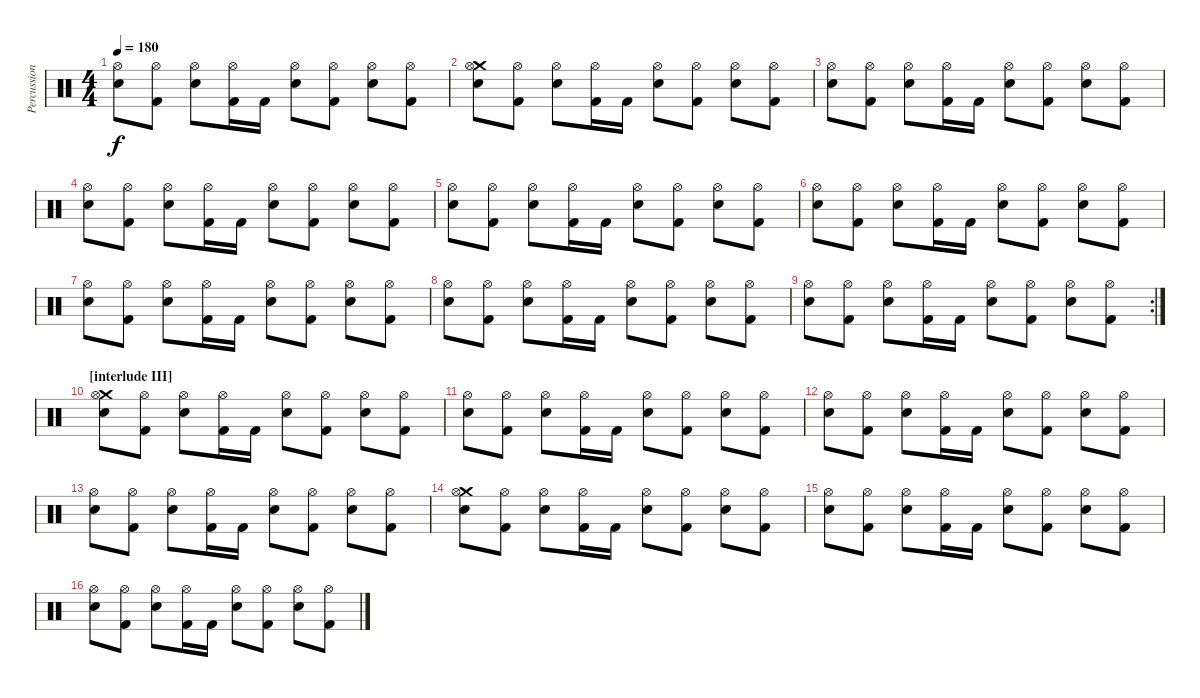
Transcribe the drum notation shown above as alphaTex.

\track ("Percussion" "Percussion") {instrument percussion}
\staff {score}
\articulation defaults
\ts (4 4)
\tempo 180
\clef neutral
\ks c
("Hi-Hat (open)" "Electric Snare (hit)").8{dy f} ("Hi-Hat (open)" "Kick (hit) 2").8 ("Hi-Hat (open)" "Electric Snare (hit)").8 ("Hi-Hat (open)" "Kick (hit) 2").16 "Kick (hit) 2".16 ("Hi-Hat (open)" "Electric Snare (hit)").8 ("Hi-Hat (open)" "Kick (hit) 2").8 ("Hi-Hat (open)" "Electric Snare (hit)").8 ("Hi-Hat (open)" "Kick (hit) 2").8 |
("Crash medium (hit)" "Hi-Hat (open)" "Electric Snare (hit)").8 ("Hi-Hat (open)" "Kick (hit) 2").8 ("Hi-Hat (open)" "Electric Snare (hit)").8 ("Hi-Hat (open)" "Kick (hit) 2").16 "Kick (hit) 2".16 ("Hi-Hat (open)" "Electric Snare (hit)").8 ("Hi-Hat (open)" "Kick (hit) 2").8 ("Hi-Hat (open)" "Electric Snare (hit)").8 ("Hi-Hat (open)" "Kick (hit) 2").8 |
("Hi-Hat (open)" "Electric Snare (hit)").8 ("Hi-Hat (open)" "Kick (hit) 2").8 ("Hi-Hat (open)" "Electric Snare (hit)").8 ("Hi-Hat (open)" "Kick (hit) 2").16 "Kick (hit) 2".16 ("Hi-Hat (open)" "Electric Snare (hit)").8 ("Hi-Hat (open)" "Kick (hit) 2").8 ("Hi-Hat (open)" "Electric Snare (hit)").8 ("Hi-Hat (open)" "Kick (hit) 2").8 |
("Hi-Hat (open)" "Electric Snare (hit)").8 ("Hi-Hat (open)" "Kick (hit) 2").8 ("Hi-Hat (open)" "Electric Snare (hit)").8 ("Hi-Hat (open)" "Kick (hit) 2").16 "Kick (hit) 2".16 ("Hi-Hat (open)" "Electric Snare (hit)").8 ("Hi-Hat (open)" "Kick (hit) 2").8 ("Hi-Hat (open)" "Electric Snare (hit)").8 ("Hi-Hat (open)" "Kick (hit) 2").8 |
("Hi-Hat (open)" "Electric Snare (hit)").8 ("Hi-Hat (open)" "Kick (hit) 2").8 ("Hi-Hat (open)" "Electric Snare (hit)").8 ("Hi-Hat (open)" "Kick (hit) 2").16 "Kick (hit) 2".16 ("Hi-Hat (open)" "Electric Snare (hit)").8 ("Hi-Hat (open)" "Kick (hit) 2").8 ("Hi-Hat (open)" "Electric Snare (hit)").8 ("Hi-Hat (open)" "Kick (hit) 2").8 |
("Hi-Hat (open)" "Electric Snare (hit)").8 ("Hi-Hat (open)" "Kick (hit) 2").8 ("Hi-Hat (open)" "Electric Snare (hit)").8 ("Hi-Hat (open)" "Kick (hit) 2").16 "Kick (hit) 2".16 ("Hi-Hat (open)" "Electric Snare (hit)").8 ("Hi-Hat (open)" "Kick (hit) 2").8 ("Hi-Hat (open)" "Electric Snare (hit)").8 ("Hi-Hat (open)" "Kick (hit) 2").8 |
("Hi-Hat (open)" "Electric Snare (hit)").8 ("Hi-Hat (open)" "Kick (hit) 2").8 ("Hi-Hat (open)" "Electric Snare (hit)").8 ("Hi-Hat (open)" "Kick (hit) 2").16 "Kick (hit) 2".16 ("Hi-Hat (open)" "Electric Snare (hit)").8 ("Hi-Hat (open)" "Kick (hit) 2").8 ("Hi-Hat (open)" "Electric Snare (hit)").8 ("Hi-Hat (open)" "Kick (hit) 2").8 |
("Hi-Hat (open)" "Electric Snare (hit)").8 ("Hi-Hat (open)" "Kick (hit) 2").8 ("Hi-Hat (open)" "Electric Snare (hit)").8 ("Hi-Hat (open)" "Kick (hit) 2").16 "Kick (hit) 2".16 ("Hi-Hat (open)" "Electric Snare (hit)").8 ("Hi-Hat (open)" "Kick (hit) 2").8 ("Hi-Hat (open)" "Electric Snare (hit)").8 ("Hi-Hat (open)" "Kick (hit) 2").8 |
\rc 2
("Hi-Hat (open)" "Electric Snare (hit)").8 ("Hi-Hat (open)" "Kick (hit) 2").8 ("Hi-Hat (open)" "Electric Snare (hit)").8 ("Hi-Hat (open)" "Kick (hit) 2").16 "Kick (hit) 2".16 ("Hi-Hat (open)" "Electric Snare (hit)").8 ("Hi-Hat (open)" "Kick (hit) 2").8 ("Hi-Hat (open)" "Electric Snare (hit)").8 ("Hi-Hat (open)" "Kick (hit) 2").8 |
\section ("" "[interlude III]")
("Crash medium (hit)" "Hi-Hat (open)" "Electric Snare (hit)").8 ("Hi-Hat (open)" "Kick (hit) 2").8 ("Hi-Hat (open)" "Electric Snare (hit)").8 ("Hi-Hat (open)" "Kick (hit) 2").16 "Kick (hit) 2".16 ("Hi-Hat (open)" "Electric Snare (hit)").8 ("Hi-Hat (open)" "Kick (hit) 2").8 ("Hi-Hat (open)" "Electric Snare (hit)").8 ("Hi-Hat (open)" "Kick (hit) 2").8 |
("Hi-Hat (open)" "Electric Snare (hit)").8 ("Hi-Hat (open)" "Kick (hit) 2").8 ("Hi-Hat (open)" "Electric Snare (hit)").8 ("Hi-Hat (open)" "Kick (hit) 2").16 "Kick (hit) 2".16 ("Hi-Hat (open)" "Electric Snare (hit)").8 ("Hi-Hat (open)" "Kick (hit) 2").8 ("Hi-Hat (open)" "Electric Snare (hit)").8 ("Hi-Hat (open)" "Kick (hit) 2").8 |
("Hi-Hat (open)" "Electric Snare (hit)").8 ("Hi-Hat (open)" "Kick (hit) 2").8 ("Hi-Hat (open)" "Electric Snare (hit)").8 ("Hi-Hat (open)" "Kick (hit) 2").16 "Kick (hit) 2".16 ("Hi-Hat (open)" "Electric Snare (hit)").8 ("Hi-Hat (open)" "Kick (hit) 2").8 ("Hi-Hat (open)" "Electric Snare (hit)").8 ("Hi-Hat (open)" "Kick (hit) 2").8 |
("Hi-Hat (open)" "Electric Snare (hit)").8 ("Hi-Hat (open)" "Kick (hit) 2").8 ("Hi-Hat (open)" "Electric Snare (hit)").8 ("Hi-Hat (open)" "Kick (hit) 2").16 "Kick (hit) 2".16 ("Hi-Hat (open)" "Electric Snare (hit)").8 ("Hi-Hat (open)" "Kick (hit) 2").8 ("Hi-Hat (open)" "Electric Snare (hit)").8 ("Hi-Hat (open)" "Kick (hit) 2").8 |
("Crash medium (hit)" "Hi-Hat (open)" "Electric Snare (hit)").8 ("Hi-Hat (open)" "Kick (hit) 2").8 ("Hi-Hat (open)" "Electric Snare (hit)").8 ("Hi-Hat (open)" "Kick (hit) 2").16 "Kick (hit) 2".16 ("Hi-Hat (open)" "Electric Snare (hit)").8 ("Hi-Hat (open)" "Kick (hit) 2").8 ("Hi-Hat (open)" "Electric Snare (hit)").8 ("Hi-Hat (open)" "Kick (hit) 2").8 |
("Hi-Hat (open)" "Electric Snare (hit)").8 ("Hi-Hat (open)" "Kick (hit) 2").8 ("Hi-Hat (open)" "Electric Snare (hit)").8 ("Hi-Hat (open)" "Kick (hit) 2").16 "Kick (hit) 2".16 ("Hi-Hat (open)" "Electric Snare (hit)").8 ("Hi-Hat (open)" "Kick (hit) 2").8 ("Hi-Hat (open)" "Electric Snare (hit)").8 ("Hi-Hat (open)" "Kick (hit) 2").8 |
("Hi-Hat (open)" "Electric Snare (hit)").8 ("Hi-Hat (open)" "Kick (hit) 2").8 ("Hi-Hat (open)" "Electric Snare (hit)").8 ("Hi-Hat (open)" "Kick (hit) 2").16 "Kick (hit) 2".16 ("Hi-Hat (open)" "Electric Snare (hit)").8 ("Hi-Hat (open)" "Kick (hit) 2").8 ("Hi-Hat (open)" "Electric Snare (hit)").8 ("Hi-Hat (open)" "Kick (hit) 2").8
